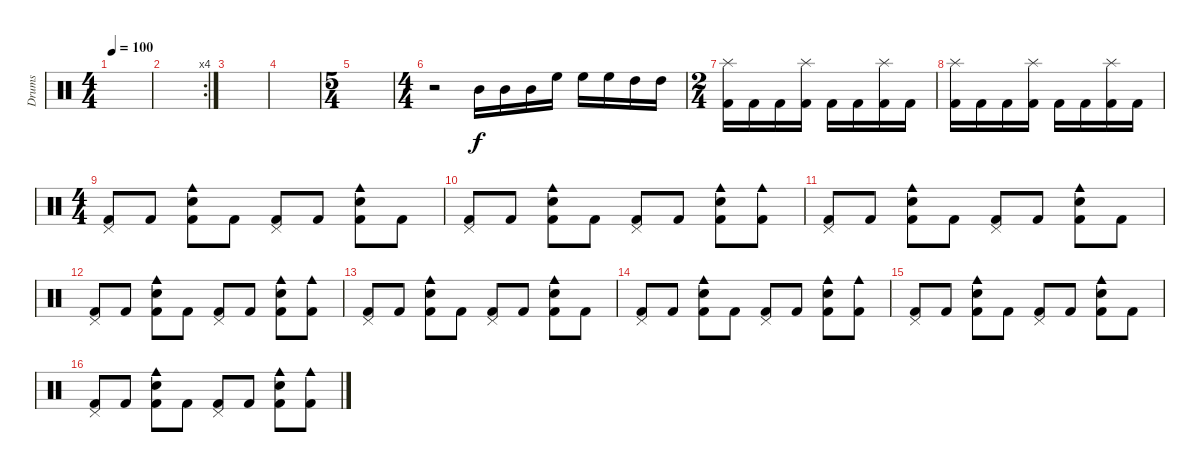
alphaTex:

\track ("Drums" "Drums") {instrument percussion}
\staff {score}
\articulation defaults
\ts (4 4)
\tempo 100
\clef neutral
\ks c
|
\rc 4
|
|
|
\ts (5 4)
|
\ts (4 4)
r.2 "Mid Tom (hit)".16 "Mid Tom (hit)".16 "Mid Tom (hit)".16 "High Floor Tom (hit)".16 "High Floor Tom (hit)".16 "High Floor Tom (hit)".16 "High Tom (hit)".16 "High Tom (hit)".16 |
\ts (2 4)
("Kick (hit) 2" "Splash (hit)").16 "Kick (hit) 2".16 "Kick (hit) 2".16 ("Kick (hit) 2" "Splash (hit)").16 "Kick (hit) 2".16 "Kick (hit) 2".16 ("Kick (hit) 2" "Splash (hit)").16 "Kick (hit) 2".16 |
("Kick (hit) 2" "Splash (hit)").16 "Kick (hit) 2".16 "Kick (hit) 2".16 ("Kick (hit) 2" "Splash (hit)").16 "Kick (hit) 2".16 "Kick (hit) 2".16 ("Kick (hit) 2" "Splash (hit)").16 "Kick (hit) 2".16 |
\ts (4 4)
("Kick (hit) 2" "Pedal Hi-Hat (hit)").8 "Kick (hit) 2".8 ("Kick (hit) 2" "Snare (hit) 2" "Cowbell medium (hit)").8 "Kick (hit) 2".8 ("Kick (hit) 2" "Pedal Hi-Hat (hit)").8 "Kick (hit) 2".8 ("Kick (hit) 2" "Snare (hit) 2" "Cowbell medium (hit)").8 "Kick (hit) 2".8 |
("Kick (hit) 2" "Pedal Hi-Hat (hit)").8 "Kick (hit) 2".8 ("Kick (hit) 2" "Snare (hit) 2" "Cowbell medium (hit)").8 "Kick (hit) 2".8 ("Kick (hit) 2" "Pedal Hi-Hat (hit)").8 "Kick (hit) 2".8 ("Kick (hit) 2" "Snare (hit) 2" "Cowbell medium (hit)").8 ("Kick (hit) 2" "Cowbell medium (hit)").8 |
("Kick (hit) 2" "Pedal Hi-Hat (hit)").8 "Kick (hit) 2".8 ("Kick (hit) 2" "Snare (hit) 2" "Cowbell medium (hit)").8 "Kick (hit) 2".8 ("Kick (hit) 2" "Pedal Hi-Hat (hit)").8 "Kick (hit) 2".8 ("Kick (hit) 2" "Snare (hit) 2" "Cowbell medium (hit)").8 "Kick (hit) 2".8 |
("Kick (hit) 2" "Pedal Hi-Hat (hit)").8 "Kick (hit) 2".8 ("Kick (hit) 2" "Snare (hit) 2" "Cowbell medium (hit)").8 "Kick (hit) 2".8 ("Kick (hit) 2" "Pedal Hi-Hat (hit)").8 "Kick (hit) 2".8 ("Kick (hit) 2" "Snare (hit) 2" "Cowbell medium (hit)").8 ("Kick (hit) 2" "Cowbell medium (hit)").8 |
("Kick (hit) 2" "Pedal Hi-Hat (hit)").8 "Kick (hit) 2".8 ("Kick (hit) 2" "Snare (hit) 2" "Cowbell medium (hit)").8 "Kick (hit) 2".8 ("Kick (hit) 2" "Pedal Hi-Hat (hit)").8 "Kick (hit) 2".8 ("Kick (hit) 2" "Snare (hit) 2" "Cowbell medium (hit)").8 "Kick (hit) 2".8 |
("Kick (hit) 2" "Pedal Hi-Hat (hit)").8 "Kick (hit) 2".8 ("Kick (hit) 2" "Snare (hit) 2" "Cowbell medium (hit)").8 "Kick (hit) 2".8 ("Kick (hit) 2" "Pedal Hi-Hat (hit)").8 "Kick (hit) 2".8 ("Kick (hit) 2" "Snare (hit) 2" "Cowbell medium (hit)").8 ("Kick (hit) 2" "Cowbell medium (hit)").8 |
("Kick (hit) 2" "Pedal Hi-Hat (hit)").8 "Kick (hit) 2".8 ("Kick (hit) 2" "Snare (hit) 2" "Cowbell medium (hit)").8 "Kick (hit) 2".8 ("Kick (hit) 2" "Pedal Hi-Hat (hit)").8 "Kick (hit) 2".8 ("Kick (hit) 2" "Snare (hit) 2" "Cowbell medium (hit)").8 "Kick (hit) 2".8 |
("Kick (hit) 2" "Pedal Hi-Hat (hit)").8 "Kick (hit) 2".8 ("Kick (hit) 2" "Snare (hit) 2" "Cowbell medium (hit)").8 "Kick (hit) 2".8 ("Kick (hit) 2" "Pedal Hi-Hat (hit)").8 "Kick (hit) 2".8 ("Kick (hit) 2" "Snare (hit) 2" "Cowbell medium (hit)").8 ("Kick (hit) 2" "Cowbell medium (hit)").8
